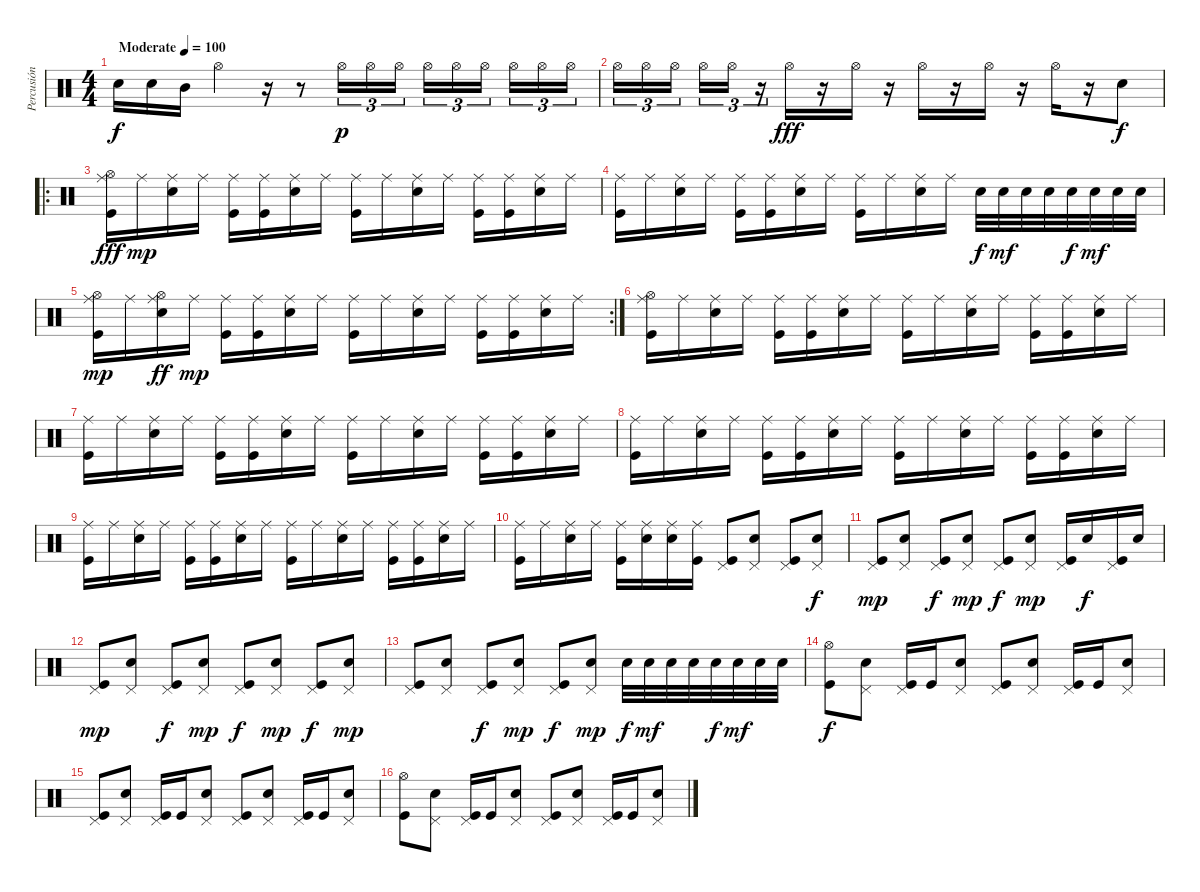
\track ("Percusión" "Percusión") {instrument percussion}
\staff {score}
\articulation defaults
\ts (4 4)
\tempo (100 "Moderate")
\clef neutral
\ks c "Snare (hit) 2".16{dy f} "Snare (hit) 2".16 "Mid Tom (hit)".16 "Hi-Hat (open)".4
r.16 r.8 "Hi-Hat (open)".16{tu (3 2) dy p} "Hi-Hat (open)".16{tu (3 2)} "Hi-Hat (open)".16{tu (3 2)} "Hi-Hat (open)".16{tu (3 2)} "Hi-Hat (open)".16{tu (3 2)} "Hi-Hat (open)".16{tu (3 2) beam splitsecondary} "Hi-Hat (open)".16{tu (3 2)} "Hi-Hat (open)".16{tu (3 2)} "Hi-Hat (open)".16{tu (3 2)} |
"Hi-Hat (open)".16{tu (3 2)} "Hi-Hat (open)".16{tu (3 2)} "Hi-Hat (open)".16{tu (3 2) beam splitsecondary} "Hi-Hat (open)".16{tu (3 2)} "Hi-Hat (open)".16{tu (3 2)} r.16{tu (3 2)} "Hi-Hat (open)".16{dy fff} r.16 "Hi-Hat (open)".16 r.16 "Hi-Hat (open)".16 r.16 "Hi-Hat (open)".16 r.16 "Hi-Hat (open)".16 r.16 "Snare (hit) 2".8{dy f} |
\ro
("Ride (middle)" "Kick (hit)" "Hi-Hat (open)").16{dy fff} "Ride (middle)".16{dy mp} ("Ride (middle)" "Snare (hit) 2").16 "Ride (middle)".16 ("Ride (middle)" "Kick (hit)").16 ("Ride (middle)" "Kick (hit)").16 ("Ride (middle)" "Snare (hit) 2").16 "Ride (middle)".16 ("Ride (middle)" "Kick (hit)").16 "Ride (middle)".16 ("Ride (middle)" "Snare (hit) 2").16 "Ride (middle)".16 ("Ride (middle)" "Kick (hit)").16 ("Ride (middle)" "Kick (hit)").16 ("Ride (middle)" "Snare (hit) 2").16 "Ride (middle)".16 |
("Ride (middle)" "Kick (hit)").16 "Ride (middle)".16 ("Ride (middle)" "Snare (hit) 2").16 "Ride (middle)".16 ("Ride (middle)" "Kick (hit)").16 ("Ride (middle)" "Kick (hit)").16 ("Ride (middle)" "Snare (hit) 2").16 "Ride (middle)".16 ("Ride (middle)" "Kick (hit)").16 "Ride (middle)".16 ("Ride (middle)" "Snare (hit) 2").16 "Ride (middle)".16 "Snare (hit) 2".32{dy f} "Snare (hit) 2".32{dy mf} "Snare (hit) 2".32 "Snare (hit) 2".32 "Snare (hit) 2".32{dy f} "Snare (hit) 2".32{dy mf} "Snare (hit) 2".32 "Snare (hit) 2".32 |
\rc 2
("Ride (middle)" "Kick (hit)" "Hi-Hat (open)").16{dy mp} "Ride (middle)".16 ("Ride (middle)" "Snare (hit) 2" "Hi-Hat (open)").16{dy ff} "Ride (middle)".16{dy mp} ("Ride (middle)" "Kick (hit)").16 ("Ride (middle)" "Kick (hit)").16 ("Ride (middle)" "Snare (hit) 2").16 "Ride (middle)".16 ("Ride (middle)" "Kick (hit)").16 "Ride (middle)".16 ("Ride (middle)" "Snare (hit) 2").16 "Ride (middle)".16 ("Ride (middle)" "Kick (hit)").16 ("Ride (middle)" "Kick (hit)").16 ("Ride (middle)" "Snare (hit) 2").16 "Ride (middle)".16 |
("Ride (middle)" "Kick (hit)" "Hi-Hat (open)").16 "Ride (middle)".16 ("Ride (middle)" "Snare (hit) 2").16 "Ride (middle)".16 ("Ride (middle)" "Kick (hit)").16 ("Ride (middle)" "Kick (hit)").16 ("Ride (middle)" "Snare (hit) 2").16 "Ride (middle)".16 ("Ride (middle)" "Kick (hit)").16 "Ride (middle)".16 ("Ride (middle)" "Snare (hit) 2").16 "Ride (middle)".16 ("Ride (middle)" "Kick (hit)").16 ("Ride (middle)" "Kick (hit)").16 ("Ride (middle)" "Snare (hit) 2").16 "Ride (middle)".16 |
("Ride (middle)" "Kick (hit)").16 "Ride (middle)".16 ("Ride (middle)" "Snare (hit) 2").16 "Ride (middle)".16 ("Ride (middle)" "Kick (hit)").16 ("Ride (middle)" "Kick (hit)").16 ("Ride (middle)" "Snare (hit) 2").16 "Ride (middle)".16 ("Ride (middle)" "Kick (hit)").16 "Ride (middle)".16 ("Ride (middle)" "Snare (hit) 2").16 "Ride (middle)".16 ("Ride (middle)" "Kick (hit)").16 ("Ride (middle)" "Kick (hit)").16 ("Ride (middle)" "Snare (hit) 2").16 "Ride (middle)".16 |
("Ride (middle)" "Kick (hit)").16 "Ride (middle)".16 ("Ride (middle)" "Snare (hit) 2").16 "Ride (middle)".16 ("Ride (middle)" "Kick (hit)").16 ("Ride (middle)" "Kick (hit)").16 ("Ride (middle)" "Snare (hit) 2").16 "Ride (middle)".16 ("Ride (middle)" "Kick (hit)").16 "Ride (middle)".16 ("Ride (middle)" "Snare (hit) 2").16 "Ride (middle)".16 ("Ride (middle)" "Kick (hit)").16 ("Ride (middle)" "Kick (hit)").16 ("Ride (middle)" "Snare (hit) 2").16 "Ride (middle)".16 |
("Ride (middle)" "Kick (hit)").16 "Ride (middle)".16 ("Ride (middle)" "Snare (hit) 2").16 "Ride (middle)".16 ("Ride (middle)" "Kick (hit)").16 ("Ride (middle)" "Kick (hit)").16 ("Ride (middle)" "Snare (hit) 2").16 "Ride (middle)".16 ("Ride (middle)" "Kick (hit)").16 "Ride (middle)".16 ("Ride (middle)" "Snare (hit) 2").16 "Ride (middle)".16 ("Ride (middle)" "Kick (hit)").16 ("Ride (middle)" "Kick (hit)").16 ("Ride (middle)" "Snare (hit) 2").16 "Ride (middle)".16 |
("Ride (middle)" "Kick (hit)").16 "Ride (middle)".16 ("Ride (middle)" "Snare (hit) 2").16 "Ride (middle)".16 ("Ride (middle)" "Kick (hit)").16 ("Ride (middle)" "Snare (hit) 2").16 ("Ride (middle)" "Snare (hit) 2").16 ("Ride (middle)" "Kick (hit)").16 ("Pedal Hi-Hat (hit)" "Kick (hit)").8 ("Pedal Hi-Hat (hit)" "Snare (hit) 2").8 ("Pedal Hi-Hat (hit)" "Kick (hit)").8 ("Pedal Hi-Hat (hit)" "Snare (hit) 2").8{dy f} |
("Pedal Hi-Hat (hit)" "Kick (hit)").8{dy mp} ("Pedal Hi-Hat (hit)" "Snare (hit) 2").8 ("Pedal Hi-Hat (hit)" "Kick (hit)").8{dy f} ("Pedal Hi-Hat (hit)" "Snare (hit) 2").8{dy mp} ("Pedal Hi-Hat (hit)" "Kick (hit)").8{dy f} ("Pedal Hi-Hat (hit)" "Snare (hit) 2").8{dy mp} ("Pedal Hi-Hat (hit)" "Kick (hit)").16 "Snare (hit) 2".16{dy f} ("Pedal Hi-Hat (hit)" "Kick (hit)").16 "Snare (hit) 2".16 |
("Pedal Hi-Hat (hit)" "Kick (hit)").8{dy mp} ("Pedal Hi-Hat (hit)" "Snare (hit) 2").8 ("Pedal Hi-Hat (hit)" "Kick (hit)").8{dy f} ("Pedal Hi-Hat (hit)" "Snare (hit) 2").8{dy mp} ("Pedal Hi-Hat (hit)" "Kick (hit)").8{dy f} ("Pedal Hi-Hat (hit)" "Snare (hit) 2").8{dy mp} ("Pedal Hi-Hat (hit)" "Kick (hit)").8{dy f} ("Pedal Hi-Hat (hit)" "Snare (hit) 2").8{dy mp} |
("Pedal Hi-Hat (hit)" "Kick (hit)").8 ("Pedal Hi-Hat (hit)" "Snare (hit) 2").8 ("Pedal Hi-Hat (hit)" "Kick (hit)").8{dy f} ("Pedal Hi-Hat (hit)" "Snare (hit) 2").8{dy mp} ("Pedal Hi-Hat (hit)" "Kick (hit)").8{dy f} ("Pedal Hi-Hat (hit)" "Snare (hit) 2").8{dy mp} "Snare (hit) 2".32{dy f} "Snare (hit) 2".32{dy mf} "Snare (hit) 2".32 "Snare (hit) 2".32 "Snare (hit) 2".32{dy f} "Snare (hit) 2".32{dy mf} "Snare (hit) 2".32 "Snare (hit) 2".32 |
("Kick (hit)" "Hi-Hat (open)").8{dy f} ("Pedal Hi-Hat (hit)" "Snare (hit) 2").8 ("Pedal Hi-Hat (hit)" "Kick (hit)").16 "Kick (hit)".16 ("Pedal Hi-Hat (hit)" "Snare (hit) 2").8 ("Pedal Hi-Hat (hit)" "Kick (hit)").8 ("Pedal Hi-Hat (hit)" "Snare (hit) 2").8 ("Pedal Hi-Hat (hit)" "Kick (hit)").16 "Kick (hit)".16 ("Pedal Hi-Hat (hit)" "Snare (hit) 2").8 |
("Pedal Hi-Hat (hit)" "Kick (hit)").8 ("Pedal Hi-Hat (hit)" "Snare (hit) 2").8 ("Pedal Hi-Hat (hit)" "Kick (hit)").16 "Kick (hit)".16 ("Pedal Hi-Hat (hit)" "Snare (hit) 2").8 ("Pedal Hi-Hat (hit)" "Kick (hit)").8 ("Pedal Hi-Hat (hit)" "Snare (hit) 2").8 ("Pedal Hi-Hat (hit)" "Kick (hit)").16 "Kick (hit)".16 ("Pedal Hi-Hat (hit)" "Snare (hit) 2").8 |
("Kick (hit)" "Hi-Hat (open)").8 ("Pedal Hi-Hat (hit)" "Snare (hit) 2").8 ("Pedal Hi-Hat (hit)" "Kick (hit)").16 "Kick (hit)".16 ("Pedal Hi-Hat (hit)" "Snare (hit) 2").8 ("Pedal Hi-Hat (hit)" "Kick (hit)").8 ("Pedal Hi-Hat (hit)" "Snare (hit) 2").8 ("Pedal Hi-Hat (hit)" "Kick (hit)").16 "Kick (hit)".16 ("Pedal Hi-Hat (hit)" "Snare (hit) 2").8
